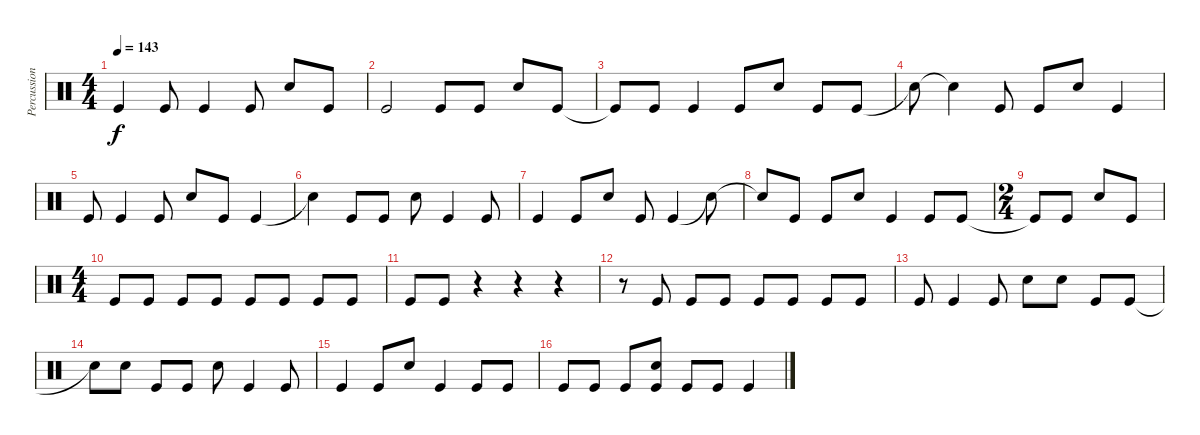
\track ("Percussion" "Percussion") {instrument percussion}
\staff {score}
\articulation defaults
\ts (4 4)
\tempo 143
\clef neutral
\ks c "Kick (hit)".4{dy f} "Kick (hit)".8 "Kick (hit)".4 "Kick (hit)".8 "Electric Snare (hit)".8 "Kick (hit)".8
|
"Kick (hit)".2 "Kick (hit)".8 "Kick (hit)".8 "Electric Snare (hit)".8 "Kick (hit)".8 |
"Kick (hit)"{t}.8 "Kick (hit)".8 "Kick (hit)".4 "Kick (hit)".8 "Electric Snare (hit)".8 "Kick (hit)".8 "Kick (hit)".8 |
"Snare (hit)"{t}.8 "Snare (hit)"{t}.4 "Kick (hit)".8 "Kick (hit)".8 "Electric Snare (hit)".8 "Kick (hit)".4 |
"Kick (hit)".8 "Kick (hit)".4 "Kick (hit)".8 "Electric Snare (hit)".8 "Kick (hit)".8 "Kick (hit)".4 |
"Snare (hit)"{t}.4 "Kick (hit)".8 "Kick (hit)".8 "Electric Snare (hit)".8 "Kick (hit)".4 "Kick (hit)".8 |
"Kick (hit)".4 "Kick (hit)".8 "Electric Snare (hit)".8 "Kick (hit)".8 "Kick (hit)".4 "Snare (hit)"{t}.8 |
"Snare (hit)"{t}.8 "Kick (hit)".8 "Kick (hit)".8 "Electric Snare (hit)".8 "Kick (hit)".4 "Kick (hit)".8 "Kick (hit)".8 |
\ts (2 4)
"Kick (hit)"{t}.8 "Kick (hit)".8 "Electric Snare (hit)".8 "Kick (hit)".8 |
\ts (4 4)
"Kick (hit)".8 "Kick (hit)".8 "Kick (hit)".8 "Kick (hit)".8 "Kick (hit)".8 "Kick (hit)".8 "Kick (hit)".8 "Kick (hit)".8 |
"Kick (hit)".8 "Kick (hit)".8 r.4 r.4 r.4 |
r.8 "Kick (hit)".8 "Kick (hit)".8 "Kick (hit)".8 "Kick (hit)".8 "Kick (hit)".8 "Kick (hit)".8 "Kick (hit)".8 |
"Kick (hit)".8 "Kick (hit)".4 "Kick (hit)".8 "Electric Snare (hit)".8 "Electric Snare (hit)".8 "Kick (hit)".8 "Kick (hit)".8 |
"Snare (hit)"{t}.8 "Electric Snare (hit)".8 "Kick (hit)".8 "Kick (hit)".8 "Electric Snare (hit)".8 "Kick (hit)".4 "Kick (hit)".8 |
"Kick (hit)".4 "Kick (hit)".8 "Electric Snare (hit)".8 "Kick (hit)".4 "Kick (hit)".8 "Kick (hit)".8 |
"Kick (hit)".8 "Kick (hit)".8 "Kick (hit)".8 ("Electric Snare (hit)" "Kick (hit)").8 "Kick (hit)".8 "Kick (hit)".8 "Kick (hit)".4
